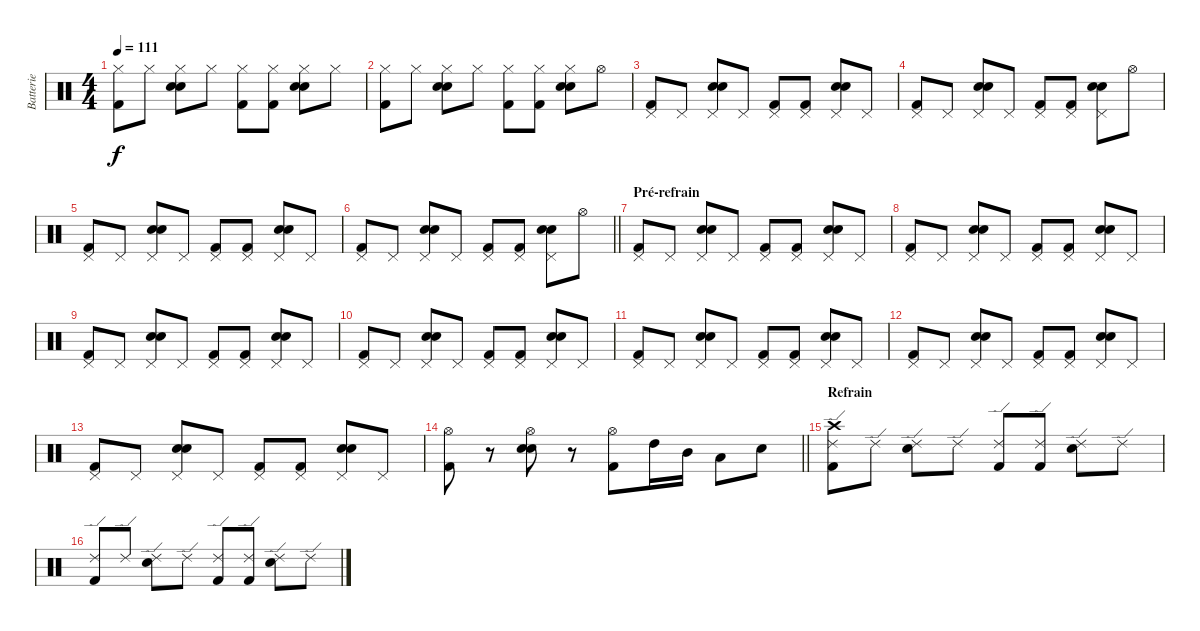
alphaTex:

\track ("Batterie" "Batterie") {instrument percussion}
\staff {score}
\articulation defaults
\ts (4 4)
\tempo 111
\clef neutral
\ks c
("Kick (hit) 2" "Hi-Hat (closed)").8{dy f} "Hi-Hat (closed)".8 ("Electric Snare (hit)" "Hi-Hat (closed)" "Hand Clap (hit)").8 "Hi-Hat (closed)".8 ("Kick (hit) 2" "Hi-Hat (closed)").8 ("Kick (hit) 2" "Hi-Hat (closed)").8 ("Electric Snare (hit)" "Hi-Hat (closed)" "Hand Clap (hit)").8 "Hi-Hat (closed)".8 |
("Kick (hit) 2" "Hi-Hat (closed)").8 "Hi-Hat (closed)".8 ("Electric Snare (hit)" "Hi-Hat (closed)" "Hand Clap (hit)").8 "Hi-Hat (closed)".8 ("Kick (hit) 2" "Hi-Hat (closed)").8 ("Kick (hit) 2" "Hi-Hat (closed)").8 ("Electric Snare (hit)" "Hi-Hat (closed)" "Hand Clap (hit)").8 "Hi-Hat (open)".8 |
("Kick (hit) 2" "Pedal Hi-Hat (hit)").8 "Pedal Hi-Hat (hit)".8 ("Snare (hit) 2" "Pedal Hi-Hat (hit)" "Hand Clap (hit)").8 "Pedal Hi-Hat (hit)".8 ("Kick (hit) 2" "Pedal Hi-Hat (hit)").8 ("Kick (hit) 2" "Pedal Hi-Hat (hit)").8 ("Snare (hit) 2" "Pedal Hi-Hat (hit)" "Hand Clap (hit)").8 "Pedal Hi-Hat (hit)".8 |
("Kick (hit) 2" "Pedal Hi-Hat (hit)").8 "Pedal Hi-Hat (hit)".8 ("Snare (hit) 2" "Pedal Hi-Hat (hit)" "Hand Clap (hit)").8 "Pedal Hi-Hat (hit)".8 ("Kick (hit) 2" "Pedal Hi-Hat (hit)").8 ("Kick (hit) 2" "Pedal Hi-Hat (hit)").8 ("Snare (hit) 2" "Pedal Hi-Hat (hit)" "Hand Clap (hit)").8 "Hi-Hat (open)".8 |
("Kick (hit) 2" "Pedal Hi-Hat (hit)").8 "Pedal Hi-Hat (hit)".8 ("Snare (hit) 2" "Pedal Hi-Hat (hit)" "Hand Clap (hit)").8 "Pedal Hi-Hat (hit)".8 ("Kick (hit) 2" "Pedal Hi-Hat (hit)").8 ("Kick (hit) 2" "Pedal Hi-Hat (hit)").8 ("Snare (hit) 2" "Pedal Hi-Hat (hit)" "Hand Clap (hit)").8 "Pedal Hi-Hat (hit)".8 |
\barLineRight lightlight
("Kick (hit) 2" "Pedal Hi-Hat (hit)").8 "Pedal Hi-Hat (hit)".8 ("Snare (hit) 2" "Pedal Hi-Hat (hit)" "Hand Clap (hit)").8 "Pedal Hi-Hat (hit)".8 ("Kick (hit) 2" "Pedal Hi-Hat (hit)").8 ("Kick (hit) 2" "Pedal Hi-Hat (hit)").8 ("Snare (hit) 2" "Pedal Hi-Hat (hit)" "Hand Clap (hit)").8 "Hi-Hat (open)".8 |
\section ("" "Pré-refrain")
("Kick (hit) 2" "Pedal Hi-Hat (hit)").8 "Pedal Hi-Hat (hit)".8 ("Snare (hit) 2" "Pedal Hi-Hat (hit)" "Hand Clap (hit)").8 "Pedal Hi-Hat (hit)".8 ("Kick (hit) 2" "Pedal Hi-Hat (hit)").8 ("Kick (hit) 2" "Pedal Hi-Hat (hit)").8 ("Snare (hit) 2" "Pedal Hi-Hat (hit)" "Hand Clap (hit)").8 "Pedal Hi-Hat (hit)".8 |
("Kick (hit) 2" "Pedal Hi-Hat (hit)").8 "Pedal Hi-Hat (hit)".8 ("Snare (hit) 2" "Pedal Hi-Hat (hit)" "Hand Clap (hit)").8 "Pedal Hi-Hat (hit)".8 ("Kick (hit) 2" "Pedal Hi-Hat (hit)").8 ("Kick (hit) 2" "Pedal Hi-Hat (hit)").8 ("Snare (hit) 2" "Pedal Hi-Hat (hit)" "Hand Clap (hit)").8 "Pedal Hi-Hat (hit)".8 |
("Kick (hit) 2" "Pedal Hi-Hat (hit)").8 "Pedal Hi-Hat (hit)".8 ("Snare (hit) 2" "Pedal Hi-Hat (hit)" "Hand Clap (hit)").8 "Pedal Hi-Hat (hit)".8 ("Kick (hit) 2" "Pedal Hi-Hat (hit)").8 ("Kick (hit) 2" "Pedal Hi-Hat (hit)").8 ("Snare (hit) 2" "Pedal Hi-Hat (hit)" "Hand Clap (hit)").8 "Pedal Hi-Hat (hit)".8 |
("Kick (hit) 2" "Pedal Hi-Hat (hit)").8 "Pedal Hi-Hat (hit)".8 ("Snare (hit) 2" "Pedal Hi-Hat (hit)" "Hand Clap (hit)").8 "Pedal Hi-Hat (hit)".8 ("Kick (hit) 2" "Pedal Hi-Hat (hit)").8 ("Kick (hit) 2" "Pedal Hi-Hat (hit)").8 ("Snare (hit) 2" "Pedal Hi-Hat (hit)" "Hand Clap (hit)").8 "Pedal Hi-Hat (hit)".8 |
("Kick (hit) 2" "Pedal Hi-Hat (hit)").8 "Pedal Hi-Hat (hit)".8 ("Snare (hit) 2" "Pedal Hi-Hat (hit)" "Hand Clap (hit)").8 "Pedal Hi-Hat (hit)".8 ("Kick (hit) 2" "Pedal Hi-Hat (hit)").8 ("Kick (hit) 2" "Pedal Hi-Hat (hit)").8 ("Snare (hit) 2" "Pedal Hi-Hat (hit)" "Hand Clap (hit)").8 "Pedal Hi-Hat (hit)".8 |
("Kick (hit) 2" "Pedal Hi-Hat (hit)").8 "Pedal Hi-Hat (hit)".8 ("Snare (hit) 2" "Pedal Hi-Hat (hit)" "Hand Clap (hit)").8 "Pedal Hi-Hat (hit)".8 ("Kick (hit) 2" "Pedal Hi-Hat (hit)").8 ("Kick (hit) 2" "Pedal Hi-Hat (hit)").8 ("Snare (hit) 2" "Pedal Hi-Hat (hit)" "Hand Clap (hit)").8 "Pedal Hi-Hat (hit)".8 |
("Kick (hit) 2" "Pedal Hi-Hat (hit)").8 "Pedal Hi-Hat (hit)".8 ("Snare (hit) 2" "Pedal Hi-Hat (hit)" "Hand Clap (hit)").8 "Pedal Hi-Hat (hit)".8 ("Kick (hit) 2" "Pedal Hi-Hat (hit)").8 ("Kick (hit) 2" "Pedal Hi-Hat (hit)").8 ("Snare (hit) 2" "Pedal Hi-Hat (hit)" "Hand Clap (hit)").8 "Pedal Hi-Hat (hit)".8 |
\barLineRight lightlight
("Kick (hit) 2" "Hi-Hat (open)").8 r.8 ("Snare (hit) 2" "Hi-Hat (open)" "Hand Clap (hit)").8 r.8 ("Kick (hit) 2" "Hi-Hat (open)").8 "High Tom (hit)".16 "Mid Tom (hit)".16 "Low Tom (hit)".8 "Snare (hit) 2".8 |
\section ("" "Refrain")
("Kick (hit) 2" "Ride (edge) 2" "Crash high (hit)").8 "Ride (edge) 2".8 ("Snare (hit) 2" "Ride (edge) 2").8 "Ride (edge) 2".8 ("Kick (hit) 2" "Ride (edge) 2").8 ("Kick (hit) 2" "Ride (edge) 2").8 ("Snare (hit) 2" "Ride (edge) 2").8 "Ride (edge) 2".8 |
("Kick (hit) 2" "Ride (edge) 2").8 "Ride (edge) 2".8 ("Snare (hit) 2" "Ride (edge) 2").8 "Ride (edge) 2".8 ("Kick (hit) 2" "Ride (edge) 2").8 ("Kick (hit) 2" "Ride (edge) 2").8 ("Snare (hit) 2" "Ride (edge) 2").8 "Ride (edge) 2".8
